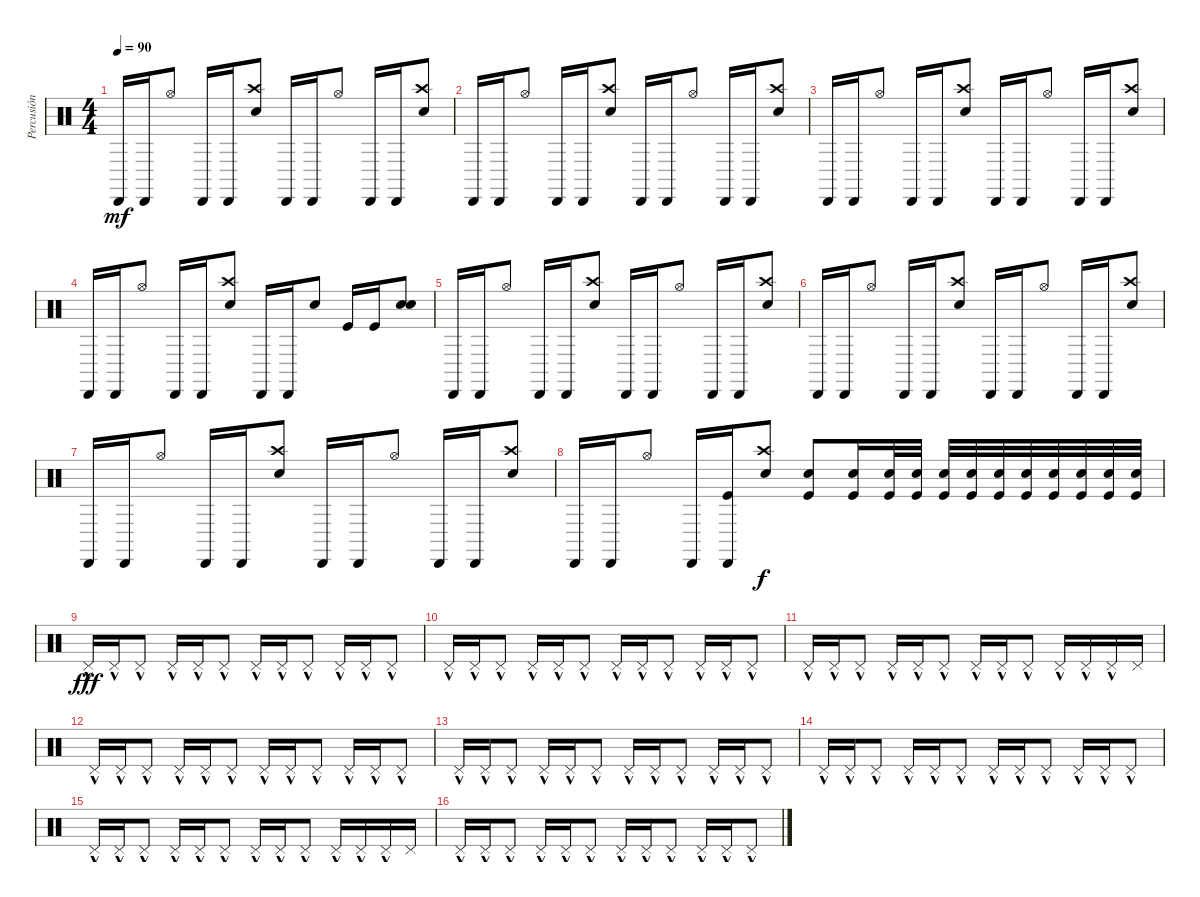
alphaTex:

\track ("Percusión" "Percusión") {instrument percussion}
\staff {score}
\articulation defaults
\ts (4 4)
\tempo 90
\clef neutral
\ks c "Cabasa (hit)".16{dy mf} "Cabasa (hit)".16 "Hi-Hat (open)".8 "Cabasa (hit)".16 "Cabasa (hit)".16
("Snare (hit) 2" "Crash high (hit)").8 "Cabasa (hit)".16 "Cabasa (hit)".16 "Hi-Hat (open)".8 "Cabasa (hit)".16 "Cabasa (hit)".16 ("Snare (hit) 2" "Crash high (hit)").8 |
"Cabasa (hit)".16 "Cabasa (hit)".16 "Hi-Hat (open)".8 "Cabasa (hit)".16 "Cabasa (hit)".16 ("Snare (hit) 2" "Crash high (hit)").8 "Cabasa (hit)".16 "Cabasa (hit)".16 "Hi-Hat (open)".8 "Cabasa (hit)".16 "Cabasa (hit)".16 ("Snare (hit) 2" "Crash high (hit)").8 |
"Cabasa (hit)".16 "Cabasa (hit)".16 "Hi-Hat (open)".8 "Cabasa (hit)".16 "Cabasa (hit)".16 ("Snare (hit) 2" "Crash high (hit)").8 "Cabasa (hit)".16 "Cabasa (hit)".16 "Hi-Hat (open)".8 "Cabasa (hit)".16 "Cabasa (hit)".16 ("Snare (hit) 2" "Crash high (hit)").8 |
"Cabasa (hit)".16 "Cabasa (hit)".16 "Hi-Hat (open)".8 "Cabasa (hit)".16 "Cabasa (hit)".16 ("Snare (hit) 2" "Crash high (hit)").8 "Cabasa (hit)".16 "Cabasa (hit)".16 "Snare (hit) 2".8 "Kick (hit)".16 "Kick (hit)".16 ("Snare (hit) 2" "Snare (hit) 2").8 |
"Cabasa (hit)".16 "Cabasa (hit)".16 "Hi-Hat (open)".8 "Cabasa (hit)".16 "Cabasa (hit)".16 ("Snare (hit) 2" "Crash high (hit)").8 "Cabasa (hit)".16 "Cabasa (hit)".16 "Hi-Hat (open)".8 "Cabasa (hit)".16 "Cabasa (hit)".16 ("Snare (hit) 2" "Crash high (hit)").8 |
"Cabasa (hit)".16 "Cabasa (hit)".16 "Hi-Hat (open)".8 "Cabasa (hit)".16 "Cabasa (hit)".16 ("Snare (hit) 2" "Crash high (hit)").8 "Cabasa (hit)".16 "Cabasa (hit)".16 "Hi-Hat (open)".8 "Cabasa (hit)".16 "Cabasa (hit)".16 ("Snare (hit) 2" "Crash high (hit)").8 |
"Cabasa (hit)".16 "Cabasa (hit)".16 "Hi-Hat (open)".8 "Cabasa (hit)".16 "Cabasa (hit)".16 ("Snare (hit) 2" "Crash high (hit)").8 "Cabasa (hit)".16 "Cabasa (hit)".16 "Hi-Hat (open)".8 "Cabasa (hit)".16 "Cabasa (hit)".16 ("Snare (hit) 2" "Crash high (hit)").8 |
"Cabasa (hit)".16 "Cabasa (hit)".16 "Hi-Hat (open)".8 "Cabasa (hit)".16 ("Cabasa (hit)" "Kick (hit)").16 ("Snare (hit) 2" "Crash high (hit)").8{dy f} ("Snare (hit) 2" "Kick (hit)").8 ("Kick (hit)" "Snare (hit) 2").16 ("Kick (hit)" "Snare (hit) 2").32 ("Kick (hit)" "Snare (hit) 2").32 ("Kick (hit)" "Snare (hit) 2").32 ("Kick (hit)" "Snare (hit) 2").32 ("Kick (hit)" "Snare (hit) 2").32 ("Kick (hit)" "Snare (hit) 2").32 ("Kick (hit)" "Snare (hit) 2").32 ("Kick (hit)" "Snare (hit) 2").32 ("Kick (hit)" "Snare (hit) 2").32 ("Kick (hit)" "Snare (hit) 2").32 |
"Pedal Hi-Hat (hit)"{hac}.16{dy fff} "Pedal Hi-Hat (hit)"{hac}.16 "Pedal Hi-Hat (hit)"{hac}.8 "Pedal Hi-Hat (hit)"{hac}.16 "Pedal Hi-Hat (hit)"{hac}.16 "Pedal Hi-Hat (hit)"{hac}.8 "Pedal Hi-Hat (hit)"{hac}.16 "Pedal Hi-Hat (hit)"{hac}.16 "Pedal Hi-Hat (hit)"{hac}.8 "Pedal Hi-Hat (hit)"{hac}.16 "Pedal Hi-Hat (hit)"{hac}.16 "Pedal Hi-Hat (hit)"{hac}.8 |
"Pedal Hi-Hat (hit)"{hac}.16 "Pedal Hi-Hat (hit)"{hac}.16 "Pedal Hi-Hat (hit)"{hac}.8 "Pedal Hi-Hat (hit)"{hac}.16 "Pedal Hi-Hat (hit)"{hac}.16 "Pedal Hi-Hat (hit)"{hac}.8 "Pedal Hi-Hat (hit)"{hac}.16 "Pedal Hi-Hat (hit)"{hac}.16 "Pedal Hi-Hat (hit)"{hac}.8 "Pedal Hi-Hat (hit)"{hac}.16 "Pedal Hi-Hat (hit)"{hac}.16 "Pedal Hi-Hat (hit)"{hac}.8 |
"Pedal Hi-Hat (hit)"{hac}.16 "Pedal Hi-Hat (hit)"{hac}.16 "Pedal Hi-Hat (hit)"{hac}.8 "Pedal Hi-Hat (hit)"{hac}.16 "Pedal Hi-Hat (hit)"{hac}.16 "Pedal Hi-Hat (hit)"{hac}.8 "Pedal Hi-Hat (hit)"{hac}.16 "Pedal Hi-Hat (hit)"{hac}.16 "Pedal Hi-Hat (hit)"{hac}.8 "Pedal Hi-Hat (hit)"{hac}.16 "Pedal Hi-Hat (hit)"{hac}.16 "Pedal Hi-Hat (hit)"{hac}.16 "Pedal Hi-Hat (hit)".16 |
"Pedal Hi-Hat (hit)"{hac}.16 "Pedal Hi-Hat (hit)"{hac}.16 "Pedal Hi-Hat (hit)"{hac}.8 "Pedal Hi-Hat (hit)"{hac}.16 "Pedal Hi-Hat (hit)"{hac}.16 "Pedal Hi-Hat (hit)"{hac}.8 "Pedal Hi-Hat (hit)"{hac}.16 "Pedal Hi-Hat (hit)"{hac}.16 "Pedal Hi-Hat (hit)"{hac}.8 "Pedal Hi-Hat (hit)"{hac}.16 "Pedal Hi-Hat (hit)"{hac}.16 "Pedal Hi-Hat (hit)"{hac}.8 |
"Pedal Hi-Hat (hit)"{hac}.16 "Pedal Hi-Hat (hit)"{hac}.16 "Pedal Hi-Hat (hit)"{hac}.8 "Pedal Hi-Hat (hit)"{hac}.16 "Pedal Hi-Hat (hit)"{hac}.16 "Pedal Hi-Hat (hit)"{hac}.8 "Pedal Hi-Hat (hit)"{hac}.16 "Pedal Hi-Hat (hit)"{hac}.16 "Pedal Hi-Hat (hit)"{hac}.8 "Pedal Hi-Hat (hit)"{hac}.16 "Pedal Hi-Hat (hit)"{hac}.16 "Pedal Hi-Hat (hit)"{hac}.8 |
"Pedal Hi-Hat (hit)"{hac}.16 "Pedal Hi-Hat (hit)"{hac}.16 "Pedal Hi-Hat (hit)"{hac}.8 "Pedal Hi-Hat (hit)"{hac}.16 "Pedal Hi-Hat (hit)"{hac}.16 "Pedal Hi-Hat (hit)"{hac}.8 "Pedal Hi-Hat (hit)"{hac}.16 "Pedal Hi-Hat (hit)"{hac}.16 "Pedal Hi-Hat (hit)"{hac}.8 "Pedal Hi-Hat (hit)"{hac}.16 "Pedal Hi-Hat (hit)"{hac}.16 "Pedal Hi-Hat (hit)"{hac}.8 |
"Pedal Hi-Hat (hit)"{hac}.16 "Pedal Hi-Hat (hit)"{hac}.16 "Pedal Hi-Hat (hit)"{hac}.8 "Pedal Hi-Hat (hit)"{hac}.16 "Pedal Hi-Hat (hit)"{hac}.16 "Pedal Hi-Hat (hit)"{hac}.8 "Pedal Hi-Hat (hit)"{hac}.16 "Pedal Hi-Hat (hit)"{hac}.16 "Pedal Hi-Hat (hit)"{hac}.8 "Pedal Hi-Hat (hit)"{hac}.16 "Pedal Hi-Hat (hit)"{hac}.16 "Pedal Hi-Hat (hit)"{hac}.16 "Pedal Hi-Hat (hit)".16 |
"Pedal Hi-Hat (hit)"{hac}.16 "Pedal Hi-Hat (hit)"{hac}.16 "Pedal Hi-Hat (hit)"{hac}.8 "Pedal Hi-Hat (hit)"{hac}.16 "Pedal Hi-Hat (hit)"{hac}.16 "Pedal Hi-Hat (hit)"{hac}.8 "Pedal Hi-Hat (hit)"{hac}.16 "Pedal Hi-Hat (hit)"{hac}.16 "Pedal Hi-Hat (hit)"{hac}.8 "Pedal Hi-Hat (hit)"{hac}.16 "Pedal Hi-Hat (hit)"{hac}.16 "Pedal Hi-Hat (hit)"{hac}.8
